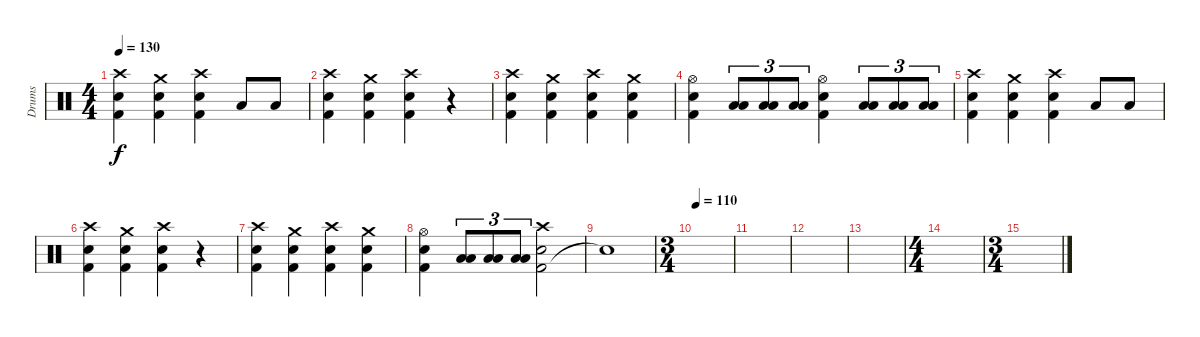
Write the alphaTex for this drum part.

\track ("Drums" "Drums") {instrument percussion}
\staff {score}
\articulation defaults
\ts (4 4)
\tempo 130
\clef neutral
\ks c
("Kick (hit) 2" "Snare (hit) 2" "Crash high (hit)").4{dy f} ("Kick (hit) 2" "Snare (hit) 2" "Crash medium (hit)").4 ("Kick (hit) 2" "Snare (hit) 2" "Crash high (hit)").4 "Low Tom (hit)".8 "Low Tom (hit)".8 |
("Kick (hit) 2" "Snare (hit) 2" "Crash high (hit)").4 ("Kick (hit) 2" "Snare (hit) 2" "Crash medium (hit)").4 ("Kick (hit) 2" "Snare (hit) 2" "Crash high (hit)").4 r.4 |
("Kick (hit) 2" "Snare (hit) 2" "Crash high (hit)").4 ("Kick (hit) 2" "Snare (hit) 2" "Crash medium (hit)").4 ("Kick (hit) 2" "Snare (hit) 2" "Crash high (hit)").4 ("Kick (hit) 2" "Snare (hit) 2" "Crash medium (hit)").4 |
("Kick (hit) 2" "Snare (hit) 2" "Hi-Hat (open)").4 ("Low Floor Tom (hit)" "Low Floor Tom (hit)").8{tu (3 2)} ("Low Floor Tom (hit)" "Low Floor Tom (hit)").8{tu (3 2)} ("Low Floor Tom (hit)" "Low Floor Tom (hit)").8{tu (3 2)} ("Kick (hit) 2" "Snare (hit) 2" "Hi-Hat (open)").4 ("Low Floor Tom (hit)" "Low Floor Tom (hit)").8{tu (3 2)} ("Low Floor Tom (hit)" "Low Floor Tom (hit)").8{tu (3 2)} ("Low Floor Tom (hit)" "Low Floor Tom (hit)").8{tu (3 2)} |
("Kick (hit) 2" "Snare (hit) 2" "Crash high (hit)").4 ("Kick (hit) 2" "Snare (hit) 2" "Crash medium (hit)").4 ("Kick (hit) 2" "Snare (hit) 2" "Crash high (hit)").4 "Low Tom (hit)".8 "Low Tom (hit)".8 |
("Kick (hit) 2" "Snare (hit) 2" "Crash high (hit)").4 ("Kick (hit) 2" "Snare (hit) 2" "Crash medium (hit)").4 ("Kick (hit) 2" "Snare (hit) 2" "Crash high (hit)").4 r.4 |
("Kick (hit) 2" "Snare (hit) 2" "Crash high (hit)").4 ("Kick (hit) 2" "Snare (hit) 2" "Crash medium (hit)").4 ("Kick (hit) 2" "Snare (hit) 2" "Crash high (hit)").4 ("Kick (hit) 2" "Snare (hit) 2" "Crash medium (hit)").4 |
("Kick (hit) 2" "Snare (hit) 2" "Hi-Hat (open)").4 ("Low Floor Tom (hit)" "Low Floor Tom (hit)").8{tu (3 2)} ("Low Floor Tom (hit)" "Low Floor Tom (hit)").8{tu (3 2)} ("Low Floor Tom (hit)" "Low Floor Tom (hit)").8{tu (3 2)} ("Kick (hit) 2" "Snare (hit) 2" "Crash high (hit)").2 |
"Snare (hit)"{t}.1 |
\ts (3 4)
\tempo 110
|
|
|
|
\ts (4 4)
|
\ts (3 4)
